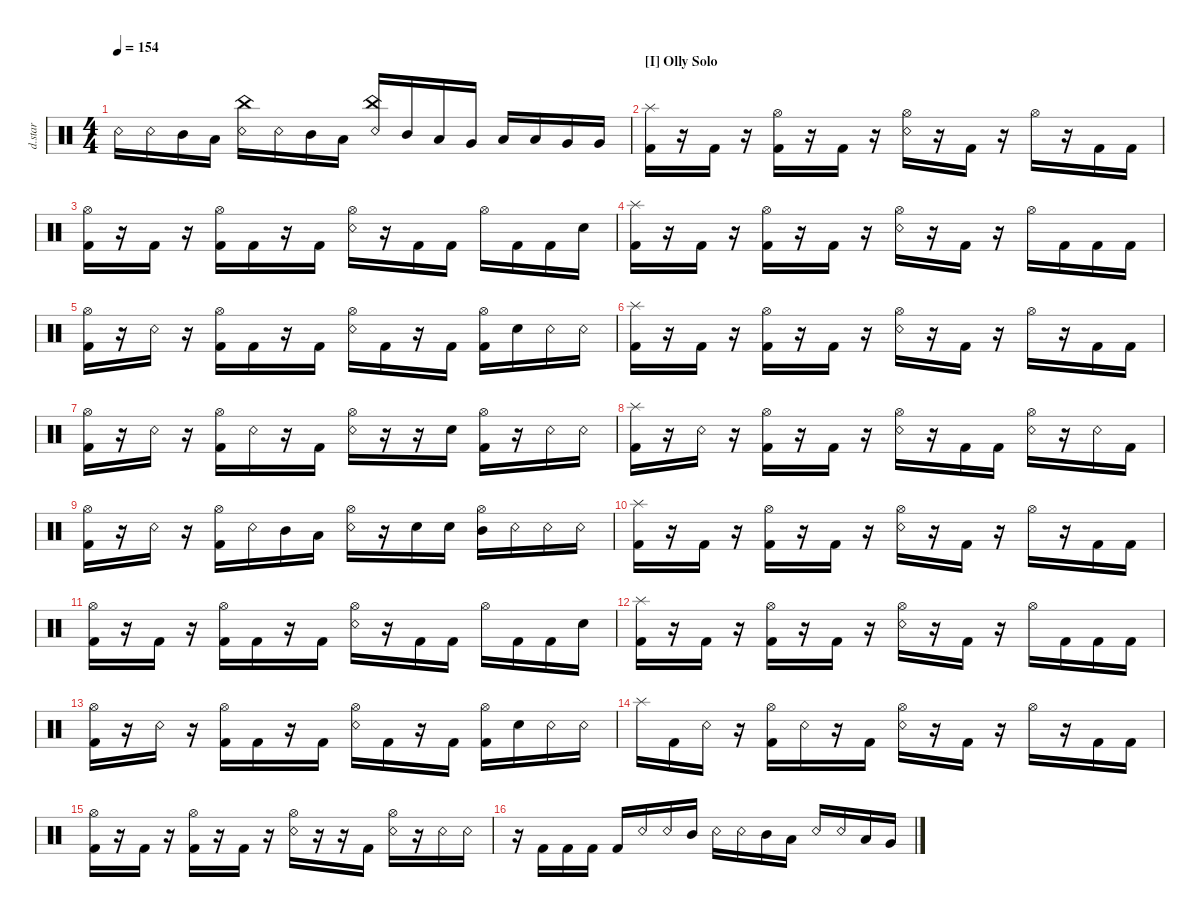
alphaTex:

\defaultSystemsLayout 4
\hideDynamics
\bracketExtendMode nobrackets
\otherSystemsTrackNameOrientation horizontal
\track ("Drumkit Star" "d.star") {instrument percussion}
\staff {score}
\articulation defaults
\ts (4 4)
\tempo 154
\clef neutral
\ks c "Snare (rim shot)".16{dy ff beam Down} "Snare (rim shot)".16{beam Down} "Mid Tom (hit)".16{beam Down} "Low Tom (hit)".16{beam Down}
("Snare (rim shot)" "China (hit)").16{beam Down} "Snare (rim shot)".16{beam Down} "Mid Tom (hit)".16{beam Down} "Low Tom (hit)".16{beam Down} ("Snare (rim shot)" "China (hit)").16{beam Up} "Mid Tom (hit)".16{beam Up} "Low Tom (hit)".16{beam Up} "Very Low Tom (hit)".16{beam Up} "Low Tom (hit)".16{beam Up} "Low Tom (hit)".16{beam Up} "Very Low Tom (hit)".16{beam Up} "Very Low Tom (hit)".16{beam Up} |
\section ("I" "Olly Solo")
("Kick (hit) 2" "Splash (hit)").16{beam Down} r.16{beam Down} "Kick (hit) 2".16{beam Down} r.16{beam Down} ("Kick (hit) 2" "Hi-Hat (open)").16{beam Down} r.16{beam Down} "Kick (hit) 2".16{beam Down} r.16{beam Down} ("Snare (rim shot)" "Hi-Hat (open)").16{beam Down} r.16{beam Down} "Kick (hit) 2".16{beam Down} r.16{beam Down} "Hi-Hat (open)".16{beam Down} r.16{beam Down} "Kick (hit) 2".16{beam Down} "Kick (hit) 2".16{beam Down} |
("Kick (hit) 2" "Hi-Hat (open)").16{beam Down} r.16{beam Down} "Kick (hit) 2".16{beam Down} r.16{beam Down} ("Kick (hit) 2" "Hi-Hat (open)").16{beam Down} "Kick (hit) 2".16{beam Down} r.16{beam Down} "Kick (hit) 2".16{beam Down} ("Snare (rim shot)" "Hi-Hat (open)").16{beam Down} r.16{beam Down} "Kick (hit) 2".16{beam Down} "Kick (hit) 2".16{beam Down} "Hi-Hat (open)".16{beam Down} "Kick (hit) 2".16{beam Down} "Kick (hit) 2".16{beam Down} "Snare (hit) 2".16{dy mp beam Down} |
("Kick (hit) 2" "Splash (hit)").16{dy ff beam Down} r.16{beam Down} "Kick (hit) 2".16{beam Down} r.16{beam Down} ("Kick (hit) 2" "Hi-Hat (open)").16{beam Down} r.16{beam Down} "Kick (hit) 2".16{beam Down} r.16{beam Down} ("Snare (rim shot)" "Hi-Hat (open)").16{beam Down} r.16{beam Down} "Kick (hit) 2".16{beam Down} r.16{beam Down} "Hi-Hat (open)".16{beam Down} "Kick (hit) 2".16{beam Down} "Kick (hit) 2".16{beam Down} "Kick (hit) 2".16{beam Down} |
("Kick (hit) 2" "Hi-Hat (open)").16{beam Down} r.16{beam Down} "Snare (rim shot)".16{beam Down} r.16{beam Down} ("Kick (hit) 2" "Hi-Hat (open)").16{beam Down} "Kick (hit) 2".16{beam Down} r.16{beam Down} "Kick (hit) 2".16{beam Down} ("Snare (rim shot)" "Hi-Hat (open)").16{beam Down} "Kick (hit) 2".16{beam Down} r.16{beam Down} "Kick (hit) 2".16{beam Down} ("Kick (hit) 2" "Hi-Hat (open)").16{beam Down} "Snare (hit) 2".16{beam Down} "Snare (rim shot)".16{beam Down} "Snare (rim shot)".16{beam Down} |
("Kick (hit) 2" "Splash (hit)").16{beam Down} r.16{beam Down} "Kick (hit) 2".16{beam Down} r.16{beam Down} ("Kick (hit) 2" "Hi-Hat (open)").16{beam Down} r.16{beam Down} "Kick (hit) 2".16{beam Down} r.16{beam Down} ("Snare (rim shot)" "Hi-Hat (open)").16{beam Down} r.16{beam Down} "Kick (hit) 2".16{beam Down} r.16{beam Down} "Hi-Hat (open)".16{beam Down} r.16{beam Down} "Kick (hit) 2".16{beam Down} "Kick (hit) 2".16{beam Down} |
("Kick (hit) 2" "Hi-Hat (open)").16{beam Down} r.16{beam Down} "Snare (rim shot)".16{beam Down} r.16{beam Down} ("Kick (hit) 2" "Hi-Hat (open)").16{beam Down} "Snare (rim shot)".16{beam Down} r.16{beam Down} "Kick (hit) 2".16{beam Down} ("Snare (rim shot)" "Hi-Hat (open)").16{beam Down} r.16{beam Down} r.16{beam Down} "Snare (hit) 2".16{beam Down} ("Kick (hit) 2" "Hi-Hat (open)").16{beam Down} r.16{beam Down} "Snare (rim shot)".16{beam Down} "Snare (rim shot)".16{beam Down} |
("Kick (hit) 2" "Splash (hit)").16{beam Down} r.16{beam Down} "Snare (rim shot)".16{beam Down} r.16{beam Down} ("Kick (hit) 2" "Hi-Hat (open)").16{beam Down} r.16{beam Down} "Kick (hit) 2".16{beam Down} r.16{beam Down} ("Snare (rim shot)" "Hi-Hat (open)").16{beam Down} r.16{beam Down} "Kick (hit) 2".16{beam Down} "Kick (hit) 2".16{beam Down} ("Snare (rim shot)" "Hi-Hat (open)").16{beam Down} r.16{beam Down} "Snare (rim shot)".16{beam Down} "Kick (hit) 2".16{beam Down} |
("Kick (hit) 2" "Hi-Hat (open)").16{beam Down} r.16{beam Down} "Snare (rim shot)".16{beam Down} r.16{beam Down} ("Kick (hit) 2" "Hi-Hat (open)").16{beam Down} "Snare (rim shot)".16{beam Down} "Mid Tom (hit)".16{beam Down} "Low Tom (hit)".16{beam Down} ("Snare (rim shot)" "Hi-Hat (open)").16{beam Down} r.16{beam Down} "Snare (hit) 2".16{beam Down} "Snare (hit) 2".16{beam Down} ("Mid Tom (hit)" "Hi-Hat (open)").16{beam Down} "Snare (rim shot)".16{beam Down} "Snare (rim shot)".16{beam Down} "Snare (rim shot)".16{beam Down} |
("Kick (hit) 2" "Splash (hit)").16{beam Down} r.16{beam Down} "Kick (hit) 2".16{beam Down} r.16{beam Down} ("Kick (hit) 2" "Hi-Hat (open)").16{beam Down} r.16{beam Down} "Kick (hit) 2".16{beam Down} r.16{beam Down} ("Snare (rim shot)" "Hi-Hat (open)").16{beam Down} r.16{beam Down} "Kick (hit) 2".16{beam Down} r.16{beam Down} "Hi-Hat (open)".16{beam Down} r.16{beam Down} "Kick (hit) 2".16{beam Down} "Kick (hit) 2".16{beam Down} |
("Kick (hit) 2" "Hi-Hat (open)").16{beam Down} r.16{beam Down} "Kick (hit) 2".16{beam Down} r.16{beam Down} ("Kick (hit) 2" "Hi-Hat (open)").16{beam Down} "Kick (hit) 2".16{beam Down} r.16{beam Down} "Kick (hit) 2".16{beam Down} ("Snare (rim shot)" "Hi-Hat (open)").16{beam Down} r.16{beam Down} "Kick (hit) 2".16{beam Down} "Kick (hit) 2".16{beam Down} "Hi-Hat (open)".16{beam Down} "Kick (hit) 2".16{beam Down} "Kick (hit) 2".16{beam Down} "Snare (hit) 2".16{dy mp beam Down} |
("Kick (hit) 2" "Splash (hit)").16{dy ff beam Down} r.16{beam Down} "Kick (hit) 2".16{beam Down} r.16{beam Down} ("Kick (hit) 2" "Hi-Hat (open)").16{beam Down} r.16{beam Down} "Kick (hit) 2".16{beam Down} r.16{beam Down} ("Snare (rim shot)" "Hi-Hat (open)").16{beam Down} r.16{beam Down} "Kick (hit) 2".16{beam Down} r.16{beam Down} "Hi-Hat (open)".16{beam Down} "Kick (hit) 2".16{beam Down} "Kick (hit) 2".16{beam Down} "Kick (hit) 2".16{beam Down} |
("Kick (hit) 2" "Hi-Hat (open)").16{beam Down} r.16{beam Down} "Snare (rim shot)".16{beam Down} r.16{beam Down} ("Kick (hit) 2" "Hi-Hat (open)").16{beam Down} "Kick (hit) 2".16{beam Down} r.16{beam Down} "Kick (hit) 2".16{beam Down} ("Snare (rim shot)" "Hi-Hat (open)").16{beam Down} "Kick (hit) 2".16{beam Down} r.16{beam Down} "Kick (hit) 2".16{beam Down} ("Kick (hit) 2" "Hi-Hat (open)").16{beam Down} "Snare (hit) 2".16{beam Down} "Snare (rim shot)".16{beam Down} "Snare (rim shot)".16{beam Down} |
"Splash (hit)".16{beam Down} "Kick (hit) 2".16{beam Down} "Snare (rim shot)".16{beam Down} r.16{beam Down} ("Kick (hit) 2" "Hi-Hat (open)").16{beam Down} "Snare (rim shot)".16{beam Down} r.16{beam Down} "Kick (hit) 2".16{beam Down} ("Snare (rim shot)" "Hi-Hat (open)").16{beam Down} r.16{beam Down} "Kick (hit) 2".16{beam Down} r.16{beam Down} "Hi-Hat (open)".16{beam Down} r.16{beam Down} "Kick (hit) 2".16{beam Down} "Kick (hit) 2".16{beam Down} |
("Kick (hit) 2" "Hi-Hat (open)").16{beam Down} r.16{beam Down} "Kick (hit) 2".16{beam Down} r.16{beam Down} ("Kick (hit) 2" "Hi-Hat (open)").16{beam Down} r.16{beam Down} "Kick (hit) 2".16{beam Down} r.16{beam Down} ("Snare (rim shot)" "Hi-Hat (open)").16{beam Down} r.16{beam Down} r.16{beam Down} "Kick (hit) 2".16{beam Down} ("Snare (rim shot)" "Hi-Hat (open)").16{beam Down} r.16{beam Down} "Snare (rim shot)".16{beam Down} "Snare (rim shot)".16{beam Down} |
r.16{beam Down} "Kick (hit) 2".16{beam Up} "Kick (hit) 2".16{beam Up} "Kick (hit) 2".16{beam Up} "Kick (hit) 2".16{beam Up} "Snare (rim shot)".16{beam Up} "Snare (rim shot)".16{beam Up} "Mid Tom (hit)".16{beam Up} "Snare (rim shot)".16{beam Down} "Snare (rim shot)".16{beam Down} "Mid Tom (hit)".16{beam Down} "Low Tom (hit)".16{beam Down} "Snare (rim shot)".16{beam Up} "Snare (rim shot)".16{beam Up} "Low Tom (hit)".16{beam Up} "Very Low Tom (hit)".16{beam Up}
